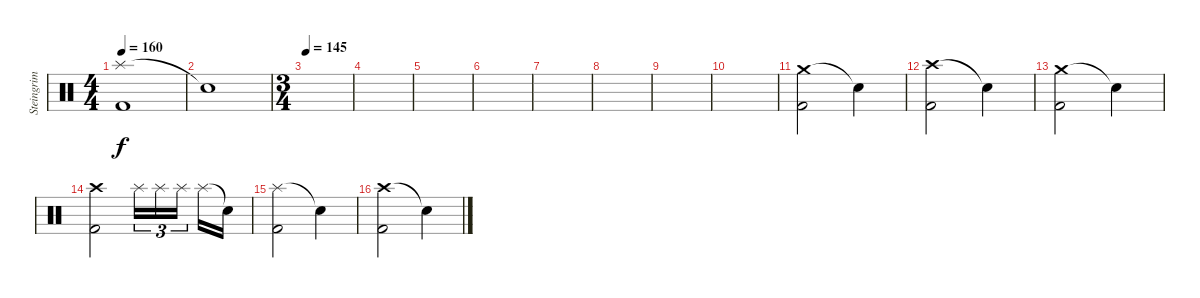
\track ("Steingrim Trommur" "Steingrim ") {instrument percussion}
\staff {score}
\articulation defaults
\ts (4 4)
\tempo 160
\clef neutral
\ks c
("Splash (hit)" "Kick (hit) 2").1{dy f} |
"Snare (hit)"{t}.1 |
\ts (3 4)
\tempo 145
|
|
|
|
|
|
|
|
("Crash medium (hit)" "Kick (hit) 2").2 "Snare (hit)"{t}.4 |
("Crash high (hit)" "Kick (hit) 2").2 "Snare (hit)"{t}.4 |
("Crash medium (hit)" "Kick (hit) 2").2 "Snare (hit)"{t}.4 |
("Crash high (hit)" "Kick (hit) 2").2 "Splash (hit)".16{tu (3 2)} "Splash (hit)".16{tu (3 2)} "Splash (hit)".16{tu (3 2)} "Splash (hit)".16 "Snare (hit)"{t}.16 |
("Splash (hit)" "Kick (hit) 2").2 "Snare (hit)"{t}.4 |
("Crash high (hit)" "Kick (hit) 2").2 "Snare (hit)"{t}.4
